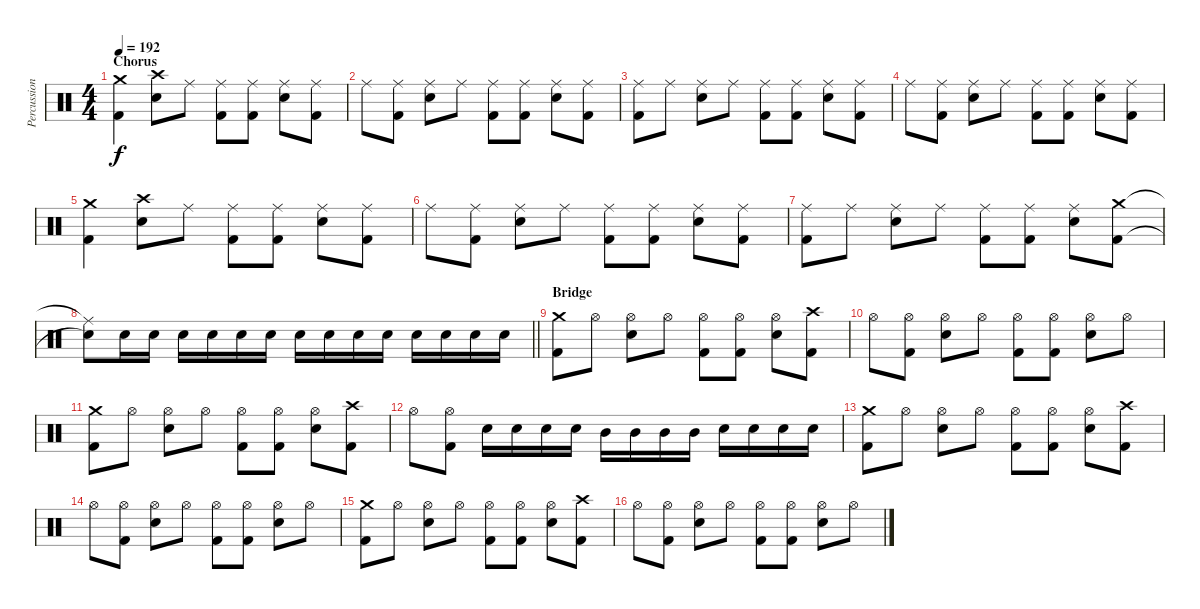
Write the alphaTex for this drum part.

\track ("Percussion" "Percussion") {instrument percussion}
\staff {score}
\articulation defaults
\ts (4 4)
\section ("" "Chorus")
\tempo 192
\clef neutral
\ks c
("Crash medium (hit)" "Kick (hit) 2").4{dy f} ("Crash high (hit)" "Electric Snare (hit)").8 "Ride (middle)".8 ("Ride (middle)" "Kick (hit) 2").8 ("Ride (middle)" "Kick (hit) 2").8 ("Ride (middle)" "Electric Snare (hit)").8 ("Ride (middle)" "Kick (hit) 2").8 |
"Ride (middle)".8 ("Ride (middle)" "Kick (hit) 2").8 ("Ride (middle)" "Electric Snare (hit)").8 "Ride (middle)".8 ("Ride (middle)" "Kick (hit) 2").8 ("Ride (middle)" "Kick (hit) 2").8 ("Ride (middle)" "Electric Snare (hit)").8 ("Ride (middle)" "Kick (hit) 2").8 |
("Ride (middle)" "Kick (hit) 2").8 "Ride (middle)".8 ("Ride (middle)" "Electric Snare (hit)").8 "Ride (middle)".8 ("Ride (middle)" "Kick (hit) 2").8 ("Ride (middle)" "Kick (hit) 2").8 ("Ride (middle)" "Electric Snare (hit)").8 ("Ride (middle)" "Kick (hit) 2").8 |
"Ride (middle)".8 ("Ride (middle)" "Kick (hit) 2").8 ("Ride (middle)" "Electric Snare (hit)").8 "Ride (middle)".8 ("Ride (middle)" "Kick (hit) 2").8 ("Ride (middle)" "Kick (hit) 2").8 ("Ride (middle)" "Electric Snare (hit)").8 ("Ride (middle)" "Kick (hit) 2").8 |
("Crash medium (hit)" "Kick (hit) 2").4 ("Crash high (hit)" "Electric Snare (hit)").8 "Ride (middle)".8 ("Ride (middle)" "Kick (hit) 2").8 ("Ride (middle)" "Kick (hit) 2").8 ("Ride (middle)" "Electric Snare (hit)").8 ("Ride (middle)" "Kick (hit) 2").8 |
"Ride (middle)".8 ("Ride (middle)" "Kick (hit) 2").8 ("Ride (middle)" "Electric Snare (hit)").8 "Ride (middle)".8 ("Ride (middle)" "Kick (hit) 2").8 ("Ride (middle)" "Kick (hit) 2").8 ("Ride (middle)" "Electric Snare (hit)").8 ("Ride (middle)" "Kick (hit) 2").8 |
("Ride (middle)" "Kick (hit) 2").8 "Ride (middle)".8 ("Ride (middle)" "Electric Snare (hit)").8 "Ride (middle)".8 ("Ride (middle)" "Kick (hit) 2").8 ("Ride (middle)" "Kick (hit) 2").8 ("Ride (middle)" "Electric Snare (hit)").8 ("Crash medium (hit)" "Kick (hit) 2").8 |
\barLineRight lightlight
("Ride (middle)"{t} "Snare (hit)"{t}).8 "Electric Snare (hit)".16 "Electric Snare (hit)".16 "Electric Snare (hit)".16 "Electric Snare (hit)".16 "Electric Snare (hit)".16 "Electric Snare (hit)".16 "Electric Snare (hit)".16 "Electric Snare (hit)".16 "Electric Snare (hit)".16 "Electric Snare (hit)".16 "Electric Snare (hit)".16 "Electric Snare (hit)".16 "Electric Snare (hit)".16 "Electric Snare (hit)".16 |
\section ("" "Bridge")
("Crash medium (hit)" "Kick (hit) 2").8 "Hi-Hat (open)".8 ("Hi-Hat (open)" "Electric Snare (hit)").8 "Hi-Hat (open)".8 ("Hi-Hat (open)" "Kick (hit) 2").8 ("Hi-Hat (open)" "Kick (hit) 2").8 ("Hi-Hat (open)" "Electric Snare (hit)").8 ("Crash high (hit)" "Kick (hit) 2").8 |
"Hi-Hat (open)".8 ("Hi-Hat (open)" "Kick (hit) 2").8 ("Hi-Hat (open)" "Electric Snare (hit)").8 "Hi-Hat (open)".8 ("Hi-Hat (open)" "Kick (hit) 2").8 ("Hi-Hat (open)" "Kick (hit) 2").8 ("Hi-Hat (open)" "Electric Snare (hit)").8 "Hi-Hat (open)".8 |
("Crash medium (hit)" "Kick (hit) 2").8 "Hi-Hat (open)".8 ("Hi-Hat (open)" "Electric Snare (hit)").8 "Hi-Hat (open)".8 ("Hi-Hat (open)" "Kick (hit) 2").8 ("Hi-Hat (open)" "Kick (hit) 2").8 ("Hi-Hat (open)" "Electric Snare (hit)").8 ("Crash high (hit)" "Kick (hit) 2").8 |
"Hi-Hat (open)".8 ("Hi-Hat (open)" "Kick (hit) 2").8 "Electric Snare (hit)".16 "Electric Snare (hit)".16 "Electric Snare (hit)".16 "Electric Snare (hit)".16 "Mid Tom (hit)".16 "Mid Tom (hit)".16 "Mid Tom (hit)".16 "Mid Tom (hit)".16 "Electric Snare (hit)".16 "Electric Snare (hit)".16 "Electric Snare (hit)".16 "Electric Snare (hit)".16 |
("Crash medium (hit)" "Kick (hit) 2").8 "Hi-Hat (open)".8 ("Hi-Hat (open)" "Electric Snare (hit)").8 "Hi-Hat (open)".8 ("Hi-Hat (open)" "Kick (hit) 2").8 ("Hi-Hat (open)" "Kick (hit) 2").8 ("Hi-Hat (open)" "Electric Snare (hit)").8 ("Crash high (hit)" "Kick (hit) 2").8 |
"Hi-Hat (open)".8 ("Hi-Hat (open)" "Kick (hit) 2").8 ("Hi-Hat (open)" "Electric Snare (hit)").8 "Hi-Hat (open)".8 ("Hi-Hat (open)" "Kick (hit) 2").8 ("Hi-Hat (open)" "Kick (hit) 2").8 ("Hi-Hat (open)" "Electric Snare (hit)").8 "Hi-Hat (open)".8 |
("Crash medium (hit)" "Kick (hit) 2").8 "Hi-Hat (open)".8 ("Hi-Hat (open)" "Electric Snare (hit)").8 "Hi-Hat (open)".8 ("Hi-Hat (open)" "Kick (hit) 2").8 ("Hi-Hat (open)" "Kick (hit) 2").8 ("Hi-Hat (open)" "Electric Snare (hit)").8 ("Crash high (hit)" "Kick (hit) 2").8 |
"Hi-Hat (open)".8 ("Hi-Hat (open)" "Kick (hit) 2").8 ("Hi-Hat (open)" "Electric Snare (hit)").8 "Hi-Hat (open)".8 ("Hi-Hat (open)" "Kick (hit) 2").8 ("Hi-Hat (open)" "Kick (hit) 2").8 ("Hi-Hat (open)" "Electric Snare (hit)").8 "Hi-Hat (open)".8
